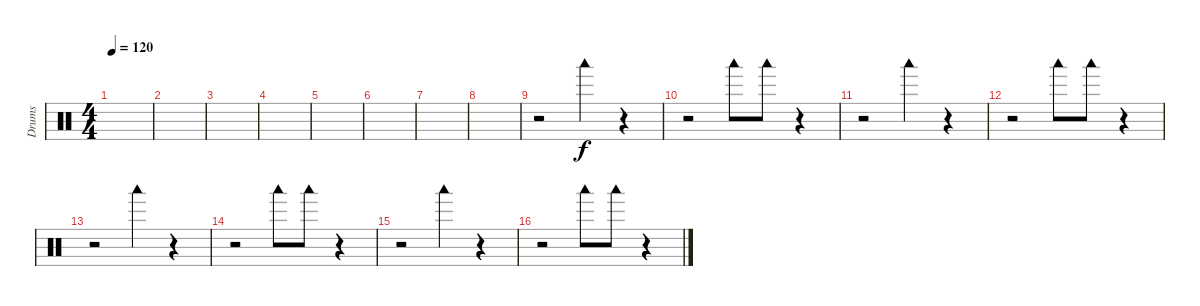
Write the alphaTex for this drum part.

\track ("Drums" "Drums") {instrument percussion}
\staff {score}
\articulation defaults
\ts (4 4)
\tempo 120
\clef neutral
\ks c
|
|
|
|
|
|
|
|
r.2 "Woodblock low (hit)".4 r.4 |
r.2 "Woodblock low (hit)".8 "Woodblock low (hit)".8 r.4 |
r.2 "Woodblock low (hit)".4 r.4 |
r.2 "Woodblock low (hit)".8 "Woodblock low (hit)".8 r.4 |
r.2 "Woodblock low (hit)".4 r.4 |
r.2 "Woodblock low (hit)".8 "Woodblock low (hit)".8 r.4 |
r.2 "Woodblock low (hit)".4 r.4 |
r.2 "Woodblock low (hit)".8 "Woodblock low (hit)".8 r.4
